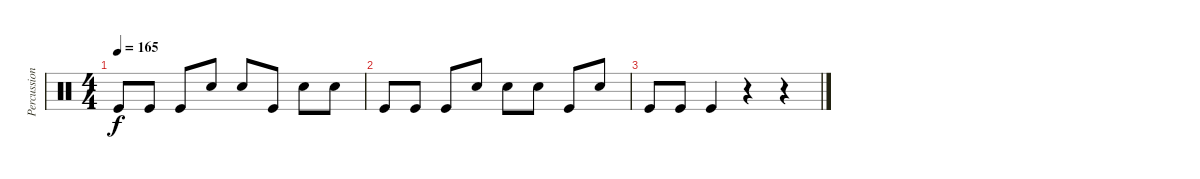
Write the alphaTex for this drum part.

\track ("Percussion" "Percussion") {instrument percussion}
\staff {score}
\articulation defaults
\ts (4 4)
\tempo 165
\clef neutral
\ks c "Kick (hit)".8{dy f} "Kick (hit)".8 "Kick (hit)".8 "Snare (hit) 2".8 "Snare (hit) 2".8 "Kick (hit)".8 "Snare (hit) 2".8 "Snare (hit) 2".8
|
"Kick (hit)".8 "Kick (hit)".8 "Kick (hit)".8 "Snare (hit) 2".8 "Snare (hit) 2".8 "Snare (hit) 2".8 "Kick (hit)".8 "Electric Snare (hit)".8 |
"Kick (hit)".8 "Kick (hit)".8 "Kick (hit)".4 r.4 r.4
